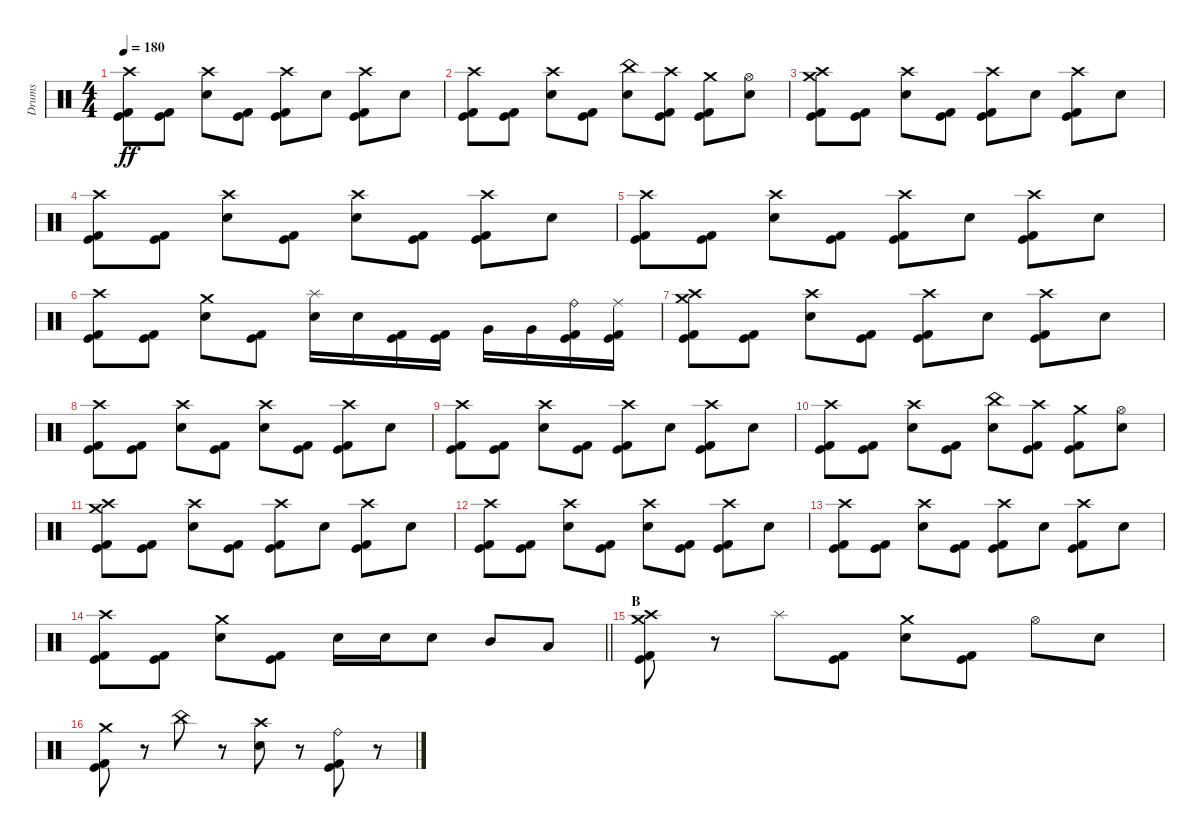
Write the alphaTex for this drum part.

\track ("Drums" "Drums") {instrument percussion}
\staff {score}
\articulation defaults
\ts (4 4)
\tempo 180
\clef neutral
\ks c
("Crash high (hit)" "Kick (hit)" "Kick (hit) 2").8{dy ff} ("Kick (hit)" "Kick (hit) 2").8 ("Crash high (hit)" "Electric Snare (hit)").8 ("Kick (hit)" "Kick (hit) 2").8 ("Crash high (hit)" "Kick (hit)" "Kick (hit) 2").8 "Electric Snare (hit)".8 ("Crash high (hit)" "Kick (hit)" "Kick (hit) 2").8 "Electric Snare (hit)".8 |
("Crash high (hit)" "Kick (hit)" "Kick (hit) 2").8 ("Kick (hit)" "Kick (hit) 2").8 ("Crash high (hit)" "Electric Snare (hit)").8 ("Kick (hit)" "Kick (hit) 2").8 ("China (hit)" "Electric Snare (hit)").8 ("Crash high (hit)" "Kick (hit)" "Kick (hit) 2").8 ("Crash medium (hit)" "Kick (hit)" "Kick (hit) 2").8 ("Hi-Hat (open)" "Electric Snare (hit)").8 |
("Crash medium (hit)" "Crash high (hit)" "Kick (hit)" "Kick (hit) 2").8 ("Kick (hit)" "Kick (hit) 2").8 ("Crash high (hit)" "Electric Snare (hit)").8 ("Kick (hit)" "Kick (hit) 2").8 ("Crash high (hit)" "Kick (hit)" "Kick (hit) 2").8 "Electric Snare (hit)".8 ("Crash high (hit)" "Kick (hit)" "Kick (hit) 2").8 "Electric Snare (hit)".8 |
("Crash high (hit)" "Kick (hit)" "Kick (hit) 2").8 ("Kick (hit)" "Kick (hit) 2").8 ("Crash high (hit)" "Electric Snare (hit)").8 ("Kick (hit)" "Kick (hit) 2").8 ("Crash high (hit)" "Electric Snare (hit)").8 ("Kick (hit)" "Kick (hit) 2").8 ("Crash high (hit)" "Kick (hit)" "Kick (hit) 2").8 "Electric Snare (hit)".8 |
("Crash high (hit)" "Kick (hit)" "Kick (hit) 2").8 ("Kick (hit)" "Kick (hit) 2").8 ("Crash high (hit)" "Electric Snare (hit)").8 ("Kick (hit)" "Kick (hit) 2").8 ("Crash high (hit)" "Kick (hit)" "Kick (hit) 2").8 "Electric Snare (hit)".8 ("Crash high (hit)" "Kick (hit)" "Kick (hit) 2").8 "Electric Snare (hit)".8 |
("Crash high (hit)" "Kick (hit)" "Kick (hit) 2").8 ("Kick (hit)" "Kick (hit) 2").8 ("Crash medium (hit)" "Electric Snare (hit)").8 ("Kick (hit)" "Kick (hit) 2").8 ("Splash (hit)" "Electric Snare (hit)").16 "Electric Snare (hit)".16 ("Kick (hit)" "Kick (hit) 2").16 ("Kick (hit)" "Kick (hit) 2").16 "Very Low Tom (hit)".16 "Very Low Tom (hit)".16 ("Ride (bell)" "Kick (hit)" "Kick (hit) 2").16 ("Ride (middle)" "Kick (hit)" "Kick (hit) 2").16 |
("Crash medium (hit)" "Crash high (hit)" "Kick (hit)" "Kick (hit) 2").8 ("Kick (hit)" "Kick (hit) 2").8 ("Crash high (hit)" "Electric Snare (hit)").8 ("Kick (hit)" "Kick (hit) 2").8 ("Crash high (hit)" "Kick (hit)" "Kick (hit) 2").8 "Electric Snare (hit)".8 ("Crash high (hit)" "Kick (hit)" "Kick (hit) 2").8 "Electric Snare (hit)".8 |
("Crash high (hit)" "Kick (hit)" "Kick (hit) 2").8 ("Kick (hit)" "Kick (hit) 2").8 ("Crash high (hit)" "Electric Snare (hit)").8 ("Kick (hit)" "Kick (hit) 2").8 ("Crash high (hit)" "Electric Snare (hit)").8 ("Kick (hit)" "Kick (hit) 2").8 ("Crash high (hit)" "Kick (hit)" "Kick (hit) 2").8 "Electric Snare (hit)".8 |
("Crash high (hit)" "Kick (hit)" "Kick (hit) 2").8 ("Kick (hit)" "Kick (hit) 2").8 ("Crash high (hit)" "Electric Snare (hit)").8 ("Kick (hit)" "Kick (hit) 2").8 ("Crash high (hit)" "Kick (hit)" "Kick (hit) 2").8 "Electric Snare (hit)".8 ("Crash high (hit)" "Kick (hit)" "Kick (hit) 2").8 "Electric Snare (hit)".8 |
("Crash high (hit)" "Kick (hit)" "Kick (hit) 2").8 ("Kick (hit)" "Kick (hit) 2").8 ("Crash high (hit)" "Electric Snare (hit)").8 ("Kick (hit)" "Kick (hit) 2").8 ("China (hit)" "Electric Snare (hit)").8 ("Crash high (hit)" "Kick (hit)" "Kick (hit) 2").8 ("Crash medium (hit)" "Kick (hit)" "Kick (hit) 2").8 ("Hi-Hat (open)" "Electric Snare (hit)").8 |
("Crash medium (hit)" "Crash high (hit)" "Kick (hit)" "Kick (hit) 2").8 ("Kick (hit)" "Kick (hit) 2").8 ("Crash high (hit)" "Electric Snare (hit)").8 ("Kick (hit)" "Kick (hit) 2").8 ("Crash high (hit)" "Kick (hit)" "Kick (hit) 2").8 "Electric Snare (hit)".8 ("Crash high (hit)" "Kick (hit)" "Kick (hit) 2").8 "Electric Snare (hit)".8 |
("Crash high (hit)" "Kick (hit)" "Kick (hit) 2").8 ("Kick (hit)" "Kick (hit) 2").8 ("Crash high (hit)" "Electric Snare (hit)").8 ("Kick (hit)" "Kick (hit) 2").8 ("Crash high (hit)" "Electric Snare (hit)").8 ("Kick (hit)" "Kick (hit) 2").8 ("Crash high (hit)" "Kick (hit)" "Kick (hit) 2").8 "Electric Snare (hit)".8 |
("Crash high (hit)" "Kick (hit)" "Kick (hit) 2").8 ("Kick (hit)" "Kick (hit) 2").8 ("Crash high (hit)" "Electric Snare (hit)").8 ("Kick (hit)" "Kick (hit) 2").8 ("Crash high (hit)" "Kick (hit)" "Kick (hit) 2").8 "Electric Snare (hit)".8 ("Crash high (hit)" "Kick (hit)" "Kick (hit) 2").8 "Electric Snare (hit)".8 |
\barLineRight lightlight
("Crash high (hit)" "Kick (hit)" "Kick (hit) 2").8 ("Kick (hit)" "Kick (hit) 2").8 ("Crash medium (hit)" "Electric Snare (hit)").8 ("Kick (hit)" "Kick (hit) 2").8 "Electric Snare (hit)".16 "Electric Snare (hit)".16 "Electric Snare (hit)".8 "Mid Tom (hit)".8 "Low Floor Tom (hit)".8 |
\section ("" "B")
("Crash medium (hit)" "Crash high (hit)" "Kick (hit)" "Kick (hit) 2").8 r.8 "Splash (hit)".8 ("Kick (hit)" "Kick (hit) 2").8 ("Crash medium (hit)" "Electric Snare (hit)").8 ("Kick (hit)" "Kick (hit) 2").8 "Hi-Hat (open)".8 "Electric Snare (hit)".8 |
("Crash medium (hit)" "Kick (hit)" "Kick (hit) 2").8 r.8 "China (hit)".8 r.8 ("Crash high (hit)" "Electric Snare (hit)").8 r.8 ("Ride (bell)" "Kick (hit)" "Kick (hit) 2").8 r.8
